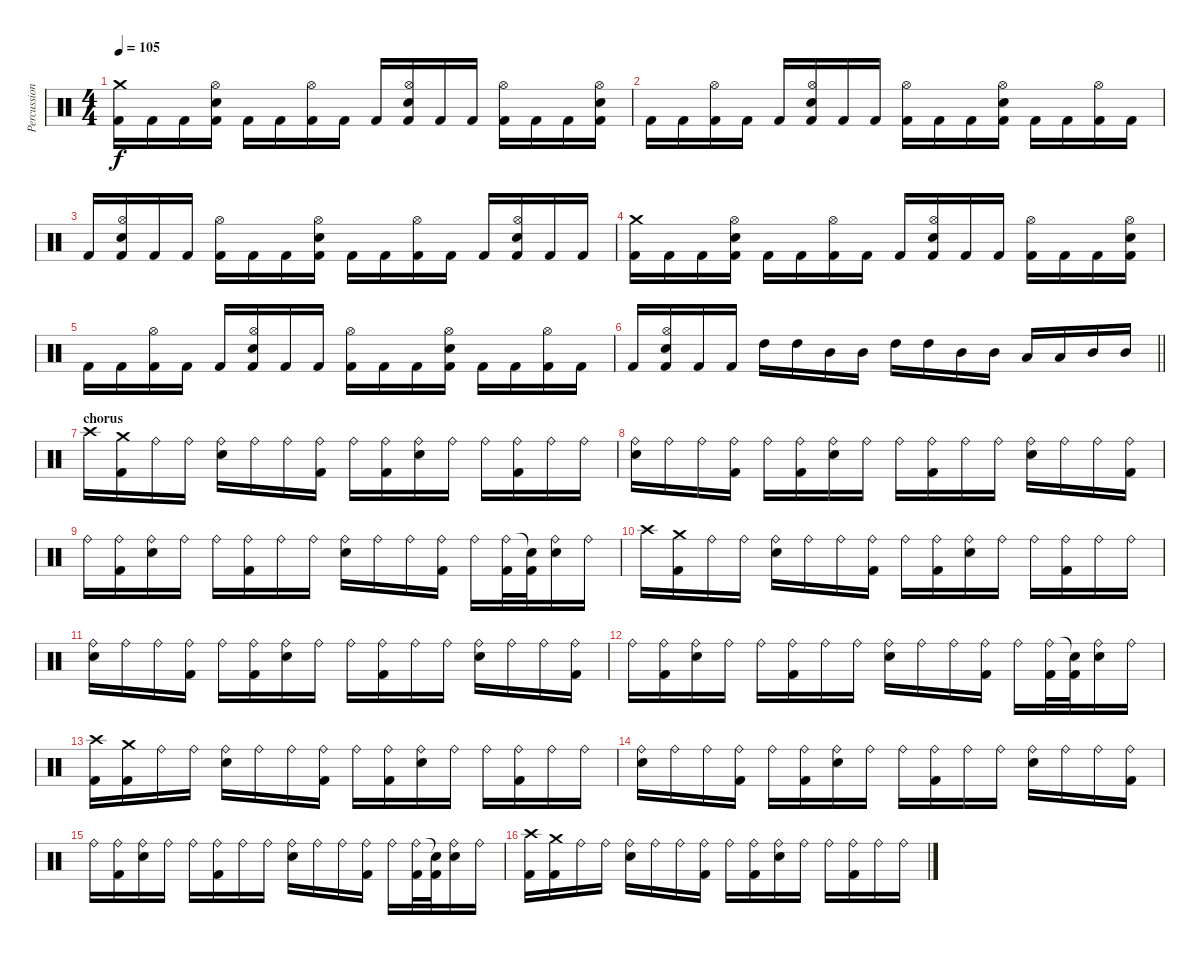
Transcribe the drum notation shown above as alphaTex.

\track ("Percussions" "Percussion") {instrument percussion}
\staff {score}
\articulation defaults
\ts (4 4)
\tempo 105
\clef neutral
\ks c
("Crash medium (hit)" "Kick (hit) 2").16{dy f} "Kick (hit) 2".16 "Kick (hit) 2".16 ("Hi-Hat (open)" "Snare (hit) 2" "Kick (hit) 2").16 "Kick (hit) 2".16 "Kick (hit) 2".16 ("Hi-Hat (open)" "Kick (hit) 2").16 "Kick (hit) 2".16 "Kick (hit) 2".16 ("Hi-Hat (open)" "Snare (hit) 2" "Kick (hit) 2").16 "Kick (hit) 2".16 "Kick (hit) 2".16 ("Hi-Hat (open)" "Kick (hit) 2").16 "Kick (hit) 2".16 "Kick (hit) 2".16 ("Hi-Hat (open)" "Snare (hit) 2" "Kick (hit) 2").16 |
"Kick (hit) 2".16 "Kick (hit) 2".16 ("Hi-Hat (open)" "Kick (hit) 2").16 "Kick (hit) 2".16 "Kick (hit) 2".16 ("Hi-Hat (open)" "Snare (hit) 2" "Kick (hit) 2").16 "Kick (hit) 2".16 "Kick (hit) 2".16 ("Hi-Hat (open)" "Kick (hit) 2").16 "Kick (hit) 2".16 "Kick (hit) 2".16 ("Hi-Hat (open)" "Snare (hit) 2" "Kick (hit) 2").16 "Kick (hit) 2".16 "Kick (hit) 2".16 ("Hi-Hat (open)" "Kick (hit) 2").16 "Kick (hit) 2".16 |
"Kick (hit) 2".16 ("Hi-Hat (open)" "Snare (hit) 2" "Kick (hit) 2").16 "Kick (hit) 2".16 "Kick (hit) 2".16 ("Hi-Hat (open)" "Kick (hit) 2").16 "Kick (hit) 2".16 "Kick (hit) 2".16 ("Hi-Hat (open)" "Snare (hit) 2" "Kick (hit) 2").16 "Kick (hit) 2".16 "Kick (hit) 2".16 ("Hi-Hat (open)" "Kick (hit) 2").16 "Kick (hit) 2".16 "Kick (hit) 2".16 ("Hi-Hat (open)" "Snare (hit) 2" "Kick (hit) 2").16 "Kick (hit) 2".16 "Kick (hit) 2".16 |
("Crash medium (hit)" "Kick (hit) 2").16 "Kick (hit) 2".16 "Kick (hit) 2".16 ("Hi-Hat (open)" "Snare (hit) 2" "Kick (hit) 2").16 "Kick (hit) 2".16 "Kick (hit) 2".16 ("Hi-Hat (open)" "Kick (hit) 2").16 "Kick (hit) 2".16 "Kick (hit) 2".16 ("Hi-Hat (open)" "Snare (hit) 2" "Kick (hit) 2").16 "Kick (hit) 2".16 "Kick (hit) 2".16 ("Hi-Hat (open)" "Kick (hit) 2").16 "Kick (hit) 2".16 "Kick (hit) 2".16 ("Hi-Hat (open)" "Snare (hit) 2" "Kick (hit) 2").16 |
"Kick (hit) 2".16 "Kick (hit) 2".16 ("Hi-Hat (open)" "Kick (hit) 2").16 "Kick (hit) 2".16 "Kick (hit) 2".16 ("Hi-Hat (open)" "Snare (hit) 2" "Kick (hit) 2").16 "Kick (hit) 2".16 "Kick (hit) 2".16 ("Hi-Hat (open)" "Kick (hit) 2").16 "Kick (hit) 2".16 "Kick (hit) 2".16 ("Hi-Hat (open)" "Snare (hit) 2" "Kick (hit) 2").16 "Kick (hit) 2".16 "Kick (hit) 2".16 ("Hi-Hat (open)" "Kick (hit) 2").16 "Kick (hit) 2".16 |
\barLineRight lightlight "Kick (hit) 2".16
("Hi-Hat (open)" "Snare (hit) 2" "Kick (hit) 2").16 "Kick (hit) 2".16 "Kick (hit) 2".16 "High Tom (hit)".16 "High Tom (hit)".16 "Mid Tom (hit)".16 "Mid Tom (hit)".16 "High Tom (hit)".16 "High Tom (hit)".16 "Mid Tom (hit)".16 "Mid Tom (hit)".16 "Low Tom (hit)".16 "Low Tom (hit)".16 "Mid Tom (hit)".16 "Mid Tom (hit)".16 |
\section ("" "chorus")
"Crash high (hit)".16 ("Crash medium (hit)" "Kick (hit) 2").16 "Ride (bell)".16 "Ride (bell)".16 ("Ride (bell)" "Snare (hit) 2").16 "Ride (bell)".16 "Ride (bell)".16 ("Ride (bell)" "Kick (hit) 2").16 "Ride (bell)".16 ("Ride (bell)" "Kick (hit) 2").16 ("Ride (bell)" "Snare (hit) 2").16 "Ride (bell)".16 "Ride (bell)".16 ("Ride (bell)" "Kick (hit) 2").16 "Ride (bell)".16 "Ride (bell)".16 |
("Ride (bell)" "Snare (hit) 2").16 "Ride (bell)".16 "Ride (bell)".16 ("Ride (bell)" "Kick (hit) 2").16 "Ride (bell)".16 ("Ride (bell)" "Kick (hit) 2").16 ("Ride (bell)" "Snare (hit) 2").16 "Ride (bell)".16 "Ride (bell)".16 ("Ride (bell)" "Kick (hit) 2").16 "Ride (bell)".16 "Ride (bell)".16 ("Ride (bell)" "Snare (hit) 2").16 "Ride (bell)".16 "Ride (bell)".16 ("Ride (bell)" "Kick (hit) 2").16 |
"Ride (bell)".16 ("Ride (bell)" "Kick (hit) 2").16 ("Ride (bell)" "Snare (hit) 2").16 "Ride (bell)".16 "Ride (bell)".16 ("Ride (bell)" "Kick (hit) 2").16 "Ride (bell)".16 "Ride (bell)".16 ("Ride (bell)" "Snare (hit) 2").16 "Ride (bell)".16 "Ride (bell)".16 ("Ride (bell)" "Kick (hit) 2").16 "Ride (bell)".16 ("Ride (bell)" "Kick (hit) 2").32 ("Snare (hit)"{t} "Kick (hit) 2").32 ("Ride (bell)" "Snare (hit) 2").16 "Ride (bell)".16 |
"Crash high (hit)".16 ("Crash medium (hit)" "Kick (hit) 2").16 "Ride (bell)".16 "Ride (bell)".16 ("Ride (bell)" "Snare (hit) 2").16 "Ride (bell)".16 "Ride (bell)".16 ("Ride (bell)" "Kick (hit) 2").16 "Ride (bell)".16 ("Ride (bell)" "Kick (hit) 2").16 ("Ride (bell)" "Snare (hit) 2").16 "Ride (bell)".16 "Ride (bell)".16 ("Ride (bell)" "Kick (hit) 2").16 "Ride (bell)".16 "Ride (bell)".16 |
("Ride (bell)" "Snare (hit) 2").16 "Ride (bell)".16 "Ride (bell)".16 ("Ride (bell)" "Kick (hit) 2").16 "Ride (bell)".16 ("Ride (bell)" "Kick (hit) 2").16 ("Ride (bell)" "Snare (hit) 2").16 "Ride (bell)".16 "Ride (bell)".16 ("Ride (bell)" "Kick (hit) 2").16 "Ride (bell)".16 "Ride (bell)".16 ("Ride (bell)" "Snare (hit) 2").16 "Ride (bell)".16 "Ride (bell)".16 ("Ride (bell)" "Kick (hit) 2").16 |
"Ride (bell)".16 ("Ride (bell)" "Kick (hit) 2").16 ("Ride (bell)" "Snare (hit) 2").16 "Ride (bell)".16 "Ride (bell)".16 ("Ride (bell)" "Kick (hit) 2").16 "Ride (bell)".16 "Ride (bell)".16 ("Ride (bell)" "Snare (hit) 2").16 "Ride (bell)".16 "Ride (bell)".16 ("Ride (bell)" "Kick (hit) 2").16 "Ride (bell)".16 ("Ride (bell)" "Kick (hit) 2").32 ("Snare (hit)"{t} "Kick (hit) 2").32 ("Ride (bell)" "Snare (hit) 2").16 "Ride (bell)".16 |
("Crash high (hit)" "Kick (hit) 2").16 ("Crash medium (hit)" "Kick (hit) 2").16 "Ride (bell)".16 "Ride (bell)".16 ("Ride (bell)" "Snare (hit) 2").16 "Ride (bell)".16 "Ride (bell)".16 ("Ride (bell)" "Kick (hit) 2").16 "Ride (bell)".16 ("Ride (bell)" "Kick (hit) 2").16 ("Ride (bell)" "Snare (hit) 2").16 "Ride (bell)".16 "Ride (bell)".16 ("Ride (bell)" "Kick (hit) 2").16 "Ride (bell)".16 "Ride (bell)".16 |
("Ride (bell)" "Snare (hit) 2").16 "Ride (bell)".16 "Ride (bell)".16 ("Ride (bell)" "Kick (hit) 2").16 "Ride (bell)".16 ("Ride (bell)" "Kick (hit) 2").16 ("Ride (bell)" "Snare (hit) 2").16 "Ride (bell)".16 "Ride (bell)".16 ("Ride (bell)" "Kick (hit) 2").16 "Ride (bell)".16 "Ride (bell)".16 ("Ride (bell)" "Snare (hit) 2").16 "Ride (bell)".16 "Ride (bell)".16 ("Ride (bell)" "Kick (hit) 2").16 |
"Ride (bell)".16 ("Ride (bell)" "Kick (hit) 2").16 ("Ride (bell)" "Snare (hit) 2").16 "Ride (bell)".16 "Ride (bell)".16 ("Ride (bell)" "Kick (hit) 2").16 "Ride (bell)".16 "Ride (bell)".16 ("Ride (bell)" "Snare (hit) 2").16 "Ride (bell)".16 "Ride (bell)".16 ("Ride (bell)" "Kick (hit) 2").16 "Ride (bell)".16 ("Ride (bell)" "Kick (hit) 2").32 ("Snare (hit)"{t} "Kick (hit) 2").32 ("Ride (bell)" "Snare (hit) 2").16 "Ride (bell)".16 |
("Crash high (hit)" "Kick (hit) 2").16 ("Crash medium (hit)" "Kick (hit) 2").16 "Ride (bell)".16 "Ride (bell)".16 ("Ride (bell)" "Snare (hit) 2").16 "Ride (bell)".16 "Ride (bell)".16 ("Ride (bell)" "Kick (hit) 2").16 "Ride (bell)".16 ("Ride (bell)" "Kick (hit) 2").16 ("Ride (bell)" "Snare (hit) 2").16 "Ride (bell)".16 "Ride (bell)".16 ("Ride (bell)" "Kick (hit) 2").16 "Ride (bell)".16 "Ride (bell)".16
